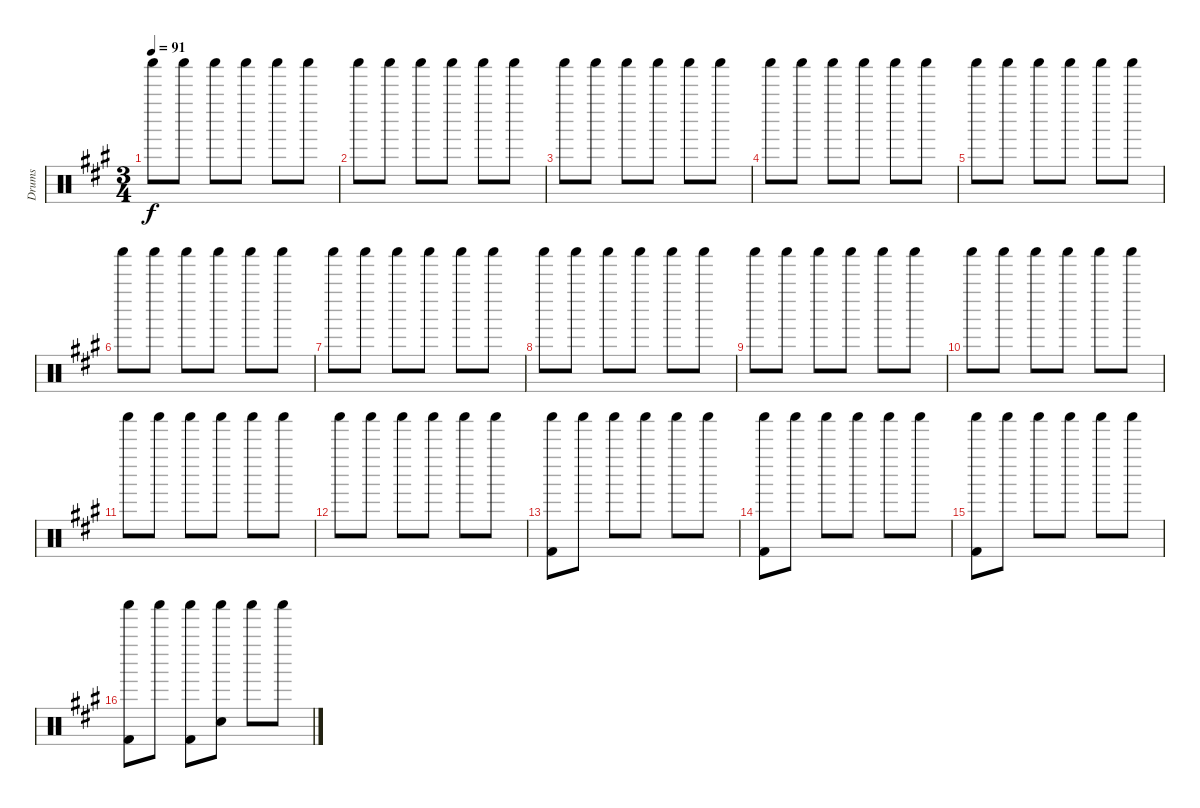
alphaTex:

\track ("Drums" "Drums") {instrument percussion}
\staff {score}
\articulation defaults
\ts (3 4)
\tempo 91
\clef neutral
\ks a "Shaker (hit)".8{dy f} "Shaker (hit)".8 "Shaker (hit)".8 "Shaker (hit)".8 "Shaker (hit)".8 "Shaker (hit)".8
|
"Shaker (hit)".8 "Shaker (hit)".8 "Shaker (hit)".8 "Shaker (hit)".8 "Shaker (hit)".8 "Shaker (hit)".8 |
"Shaker (hit)".8 "Shaker (hit)".8 "Shaker (hit)".8 "Shaker (hit)".8 "Shaker (hit)".8 "Shaker (hit)".8 |
"Shaker (hit)".8 "Shaker (hit)".8 "Shaker (hit)".8 "Shaker (hit)".8 "Shaker (hit)".8 "Shaker (hit)".8 |
"Shaker (hit)".8 "Shaker (hit)".8 "Shaker (hit)".8 "Shaker (hit)".8 "Shaker (hit)".8 "Shaker (hit)".8 |
"Shaker (hit)".8 "Shaker (hit)".8 "Shaker (hit)".8 "Shaker (hit)".8 "Shaker (hit)".8 "Shaker (hit)".8 |
"Shaker (hit)".8 "Shaker (hit)".8 "Shaker (hit)".8 "Shaker (hit)".8 "Shaker (hit)".8 "Shaker (hit)".8 |
"Shaker (hit)".8 "Shaker (hit)".8 "Shaker (hit)".8 "Shaker (hit)".8 "Shaker (hit)".8 "Shaker (hit)".8 |
"Shaker (hit)".8 "Shaker (hit)".8 "Shaker (hit)".8 "Shaker (hit)".8 "Shaker (hit)".8 "Shaker (hit)".8 |
"Shaker (hit)".8 "Shaker (hit)".8 "Shaker (hit)".8 "Shaker (hit)".8 "Shaker (hit)".8 "Shaker (hit)".8 |
"Shaker (hit)".8 "Shaker (hit)".8 "Shaker (hit)".8 "Shaker (hit)".8 "Shaker (hit)".8 "Shaker (hit)".8 |
"Shaker (hit)".8 "Shaker (hit)".8 "Shaker (hit)".8 "Shaker (hit)".8 "Shaker (hit)".8 "Shaker (hit)".8 |
("Kick (hit) 2" "Shaker (hit)").8 "Shaker (hit)".8 "Shaker (hit)".8 "Shaker (hit)".8 "Shaker (hit)".8 "Shaker (hit)".8 |
("Kick (hit) 2" "Shaker (hit)").8 "Shaker (hit)".8 "Shaker (hit)".8 "Shaker (hit)".8 "Shaker (hit)".8 "Shaker (hit)".8 |
("Kick (hit) 2" "Shaker (hit)").8 "Shaker (hit)".8 "Shaker (hit)".8 "Shaker (hit)".8 "Shaker (hit)".8 "Shaker (hit)".8 |
("Kick (hit) 2" "Shaker (hit)").8 "Shaker (hit)".8 ("Shaker (hit)" "Kick (hit) 2").8 ("Shaker (hit)" "Snare (hit) 2").8 "Shaker (hit)".8 "Shaker (hit)".8
